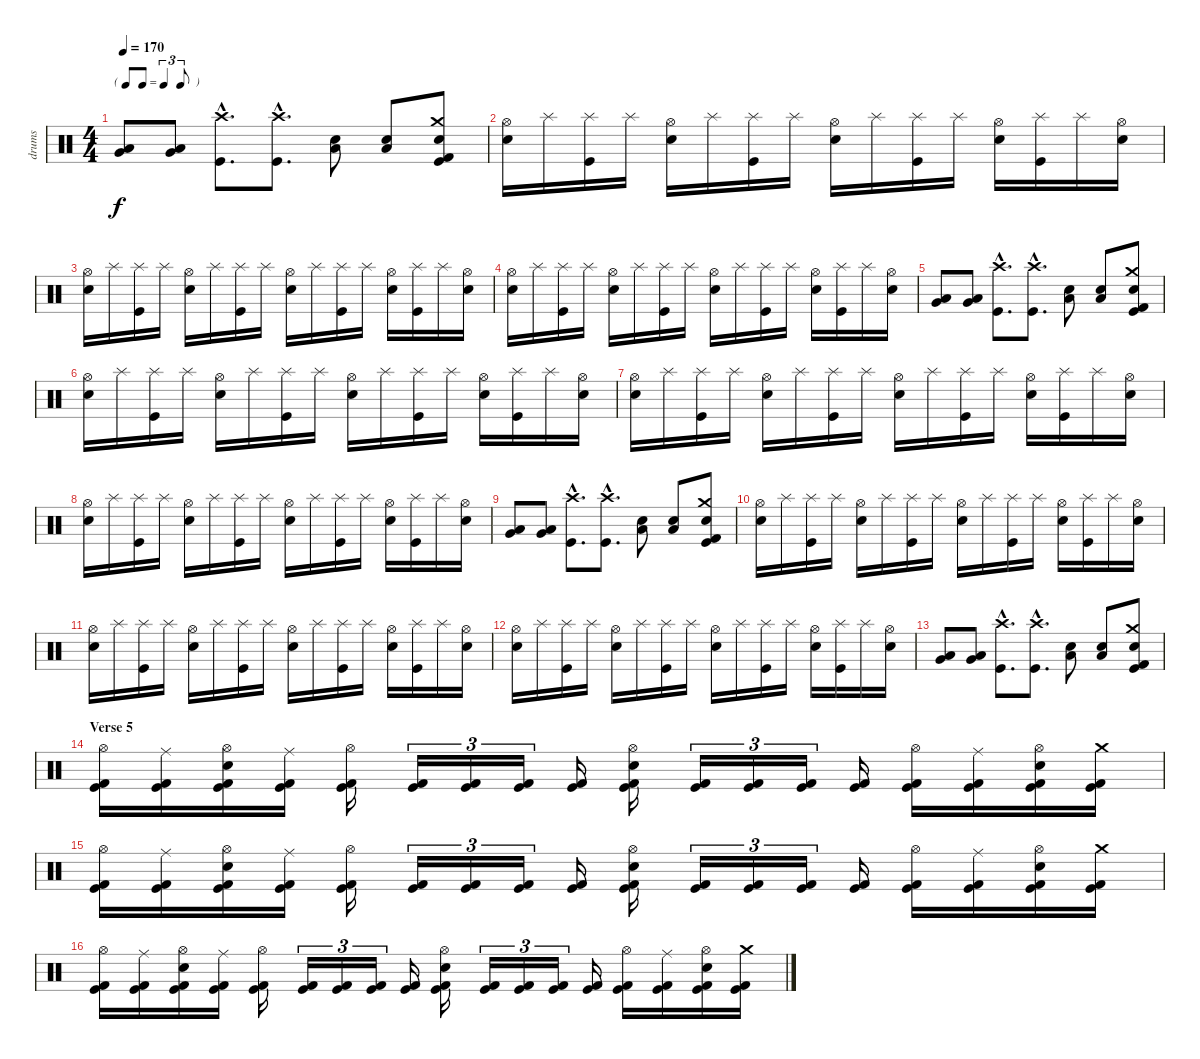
\track ("drums" "drums") {instrument percussion}
\staff {score}
\articulation defaults
\ts (4 4)
\tf triplet8th
\tempo 170
\clef neutral
\ks c
("Low Floor Tom (hit)" "Very Low Tom (hit)").8{dy f} ("Low Floor Tom (hit)" "Very Low Tom (hit)").8 ("Crash high (hit)"{hac} "Kick (hit)"{hac}).8{d} ("Crash high (hit)"{hac} "Kick (hit)"{hac}).8{d} ("Snare (hit) 2" "Low Floor Tom (hit)").8 ("Snare (hit) 2" "Low Floor Tom (hit)").8 ("Crash medium (hit)" "Electric Snare (hit)" "Kick (hit) 2" "Kick (hit)").8 |
("Hi-Hat (open)" "Snare (hit) 2").16 "Splash (hit)".16 ("Splash (hit)" "Kick (hit)").16 "Splash (hit)".16 ("Hi-Hat (open)" "Snare (hit) 2").16 "Splash (hit)".16 ("Splash (hit)" "Kick (hit)").16 "Splash (hit)".16 ("Hi-Hat (open)" "Snare (hit) 2").16 "Splash (hit)".16 ("Splash (hit)" "Kick (hit)").16 "Splash (hit)".16 ("Hi-Hat (open)" "Snare (hit) 2").16 ("Splash (hit)" "Kick (hit)").16 "Splash (hit)".16 ("Hi-Hat (open)" "Snare (hit) 2").16 |
("Hi-Hat (open)" "Snare (hit) 2").16 "Splash (hit)".16 ("Splash (hit)" "Kick (hit)").16 "Splash (hit)".16 ("Hi-Hat (open)" "Snare (hit) 2").16 "Splash (hit)".16 ("Splash (hit)" "Kick (hit)").16 "Splash (hit)".16 ("Hi-Hat (open)" "Snare (hit) 2").16 "Splash (hit)".16 ("Splash (hit)" "Kick (hit)").16 "Splash (hit)".16 ("Hi-Hat (open)" "Snare (hit) 2").16 ("Splash (hit)" "Kick (hit)").16 "Splash (hit)".16 ("Hi-Hat (open)" "Snare (hit) 2").16 |
("Hi-Hat (open)" "Snare (hit) 2").16 "Splash (hit)".16 ("Splash (hit)" "Kick (hit)").16 "Splash (hit)".16 ("Hi-Hat (open)" "Snare (hit) 2").16 "Splash (hit)".16 ("Splash (hit)" "Kick (hit)").16 "Splash (hit)".16 ("Hi-Hat (open)" "Snare (hit) 2").16 "Splash (hit)".16 ("Splash (hit)" "Kick (hit)").16 "Splash (hit)".16 ("Hi-Hat (open)" "Snare (hit) 2").16 ("Splash (hit)" "Kick (hit)").16 "Splash (hit)".16 ("Hi-Hat (open)" "Snare (hit) 2").16 |
("Low Floor Tom (hit)" "Very Low Tom (hit)").8 ("Low Floor Tom (hit)" "Very Low Tom (hit)").8 ("Crash high (hit)"{hac} "Kick (hit)"{hac}).8{d} ("Crash high (hit)"{hac} "Kick (hit)"{hac}).8{d} ("Snare (hit) 2" "Low Floor Tom (hit)").8 ("Snare (hit) 2" "Low Floor Tom (hit)").8 ("Crash medium (hit)" "Electric Snare (hit)" "Kick (hit) 2" "Kick (hit)").8 |
("Hi-Hat (open)" "Snare (hit) 2").16 "Splash (hit)".16 ("Splash (hit)" "Kick (hit)").16 "Splash (hit)".16 ("Hi-Hat (open)" "Snare (hit) 2").16 "Splash (hit)".16 ("Splash (hit)" "Kick (hit)").16 "Splash (hit)".16 ("Hi-Hat (open)" "Snare (hit) 2").16 "Splash (hit)".16 ("Splash (hit)" "Kick (hit)").16 "Splash (hit)".16 ("Hi-Hat (open)" "Snare (hit) 2").16 ("Splash (hit)" "Kick (hit)").16 "Splash (hit)".16 ("Hi-Hat (open)" "Snare (hit) 2").16 |
("Hi-Hat (open)" "Snare (hit) 2").16 "Splash (hit)".16 ("Splash (hit)" "Kick (hit)").16 "Splash (hit)".16 ("Hi-Hat (open)" "Snare (hit) 2").16 "Splash (hit)".16 ("Splash (hit)" "Kick (hit)").16 "Splash (hit)".16 ("Hi-Hat (open)" "Snare (hit) 2").16 "Splash (hit)".16 ("Splash (hit)" "Kick (hit)").16 "Splash (hit)".16 ("Hi-Hat (open)" "Snare (hit) 2").16 ("Splash (hit)" "Kick (hit)").16 "Splash (hit)".16 ("Hi-Hat (open)" "Snare (hit) 2").16 |
("Hi-Hat (open)" "Snare (hit) 2").16 "Splash (hit)".16 ("Splash (hit)" "Kick (hit)").16 "Splash (hit)".16 ("Hi-Hat (open)" "Snare (hit) 2").16 "Splash (hit)".16 ("Splash (hit)" "Kick (hit)").16 "Splash (hit)".16 ("Hi-Hat (open)" "Snare (hit) 2").16 "Splash (hit)".16 ("Splash (hit)" "Kick (hit)").16 "Splash (hit)".16 ("Hi-Hat (open)" "Snare (hit) 2").16 ("Splash (hit)" "Kick (hit)").16 "Splash (hit)".16 ("Hi-Hat (open)" "Snare (hit) 2").16 |
("Low Floor Tom (hit)" "Very Low Tom (hit)").8 ("Low Floor Tom (hit)" "Very Low Tom (hit)").8 ("Crash high (hit)"{hac} "Kick (hit)"{hac}).8{d} ("Crash high (hit)"{hac} "Kick (hit)"{hac}).8{d} ("Snare (hit) 2" "Low Floor Tom (hit)").8 ("Snare (hit) 2" "Low Floor Tom (hit)").8 ("Crash medium (hit)" "Electric Snare (hit)" "Kick (hit) 2" "Kick (hit)").8 |
("Hi-Hat (open)" "Snare (hit) 2").16 "Splash (hit)".16 ("Splash (hit)" "Kick (hit)").16 "Splash (hit)".16 ("Hi-Hat (open)" "Snare (hit) 2").16 "Splash (hit)".16 ("Splash (hit)" "Kick (hit)").16 "Splash (hit)".16 ("Hi-Hat (open)" "Snare (hit) 2").16 "Splash (hit)".16 ("Splash (hit)" "Kick (hit)").16 "Splash (hit)".16 ("Hi-Hat (open)" "Snare (hit) 2").16 ("Splash (hit)" "Kick (hit)").16 "Splash (hit)".16 ("Hi-Hat (open)" "Snare (hit) 2").16 |
("Hi-Hat (open)" "Snare (hit) 2").16 "Splash (hit)".16 ("Splash (hit)" "Kick (hit)").16 "Splash (hit)".16 ("Hi-Hat (open)" "Snare (hit) 2").16 "Splash (hit)".16 ("Splash (hit)" "Kick (hit)").16 "Splash (hit)".16 ("Hi-Hat (open)" "Snare (hit) 2").16 "Splash (hit)".16 ("Splash (hit)" "Kick (hit)").16 "Splash (hit)".16 ("Hi-Hat (open)" "Snare (hit) 2").16 ("Splash (hit)" "Kick (hit)").16 "Splash (hit)".16 ("Hi-Hat (open)" "Snare (hit) 2").16 |
("Hi-Hat (open)" "Snare (hit) 2").16 "Splash (hit)".16 ("Splash (hit)" "Kick (hit)").16 "Splash (hit)".16 ("Hi-Hat (open)" "Snare (hit) 2").16 "Splash (hit)".16 ("Splash (hit)" "Kick (hit)").16 "Splash (hit)".16 ("Hi-Hat (open)" "Snare (hit) 2").16 "Splash (hit)".16 ("Splash (hit)" "Kick (hit)").16 "Splash (hit)".16 ("Hi-Hat (open)" "Snare (hit) 2").16 ("Splash (hit)" "Kick (hit)").16 "Splash (hit)".16 ("Hi-Hat (open)" "Snare (hit) 2").16 |
("Low Floor Tom (hit)" "Very Low Tom (hit)").8 ("Low Floor Tom (hit)" "Very Low Tom (hit)").8 ("Crash high (hit)"{hac} "Kick (hit)"{hac}).8{d} ("Crash high (hit)"{hac} "Kick (hit)"{hac}).8{d} ("Snare (hit) 2" "Low Floor Tom (hit)").8 ("Snare (hit) 2" "Low Floor Tom (hit)").8 ("Crash medium (hit)" "Electric Snare (hit)" "Kick (hit) 2" "Kick (hit)").8 |
\section ("" "Verse 5")
("Hi-Hat (open)" "Kick (hit)" "Kick (hit) 2").16 ("Ride (middle)" "Kick (hit)" "Kick (hit) 2").16 ("Hi-Hat (open)" "Snare (hit) 2" "Kick (hit)" "Kick (hit) 2").16 ("Ride (middle)" "Kick (hit)" "Kick (hit) 2").16 ("Hi-Hat (open)" "Kick (hit)" "Kick (hit) 2").16 ("Kick (hit)" "Kick (hit) 2").16{tu (3 2)} ("Kick (hit)" "Kick (hit) 2").16{tu (3 2)} ("Kick (hit)" "Kick (hit) 2").16{tu (3 2)} ("Kick (hit)" "Kick (hit) 2").16 ("Hi-Hat (open)" "Snare (hit) 2" "Kick (hit)" "Kick (hit) 2").16 ("Kick (hit)" "Kick (hit) 2").16{tu (3 2)} ("Kick (hit)" "Kick (hit) 2").16{tu (3 2)} ("Kick (hit)" "Kick (hit) 2").16{tu (3 2)} ("Kick (hit)" "Kick (hit) 2").16 ("Hi-Hat (open)" "Kick (hit)" "Kick (hit) 2").16 ("Ride (middle)" "Kick (hit)" "Kick (hit) 2").16 ("Hi-Hat (open)" "Snare (hit) 2" "Kick (hit)" "Kick (hit) 2").16 ("Crash medium (hit)" "Kick (hit)" "Kick (hit) 2").16 |
("Hi-Hat (open)" "Kick (hit)" "Kick (hit) 2").16 ("Ride (middle)" "Kick (hit)" "Kick (hit) 2").16 ("Hi-Hat (open)" "Snare (hit) 2" "Kick (hit)" "Kick (hit) 2").16 ("Ride (middle)" "Kick (hit)" "Kick (hit) 2").16 ("Hi-Hat (open)" "Kick (hit)" "Kick (hit) 2").16 ("Kick (hit)" "Kick (hit) 2").16{tu (3 2)} ("Kick (hit)" "Kick (hit) 2").16{tu (3 2)} ("Kick (hit)" "Kick (hit) 2").16{tu (3 2)} ("Kick (hit)" "Kick (hit) 2").16 ("Hi-Hat (open)" "Snare (hit) 2" "Kick (hit)" "Kick (hit) 2").16 ("Kick (hit)" "Kick (hit) 2").16{tu (3 2)} ("Kick (hit)" "Kick (hit) 2").16{tu (3 2)} ("Kick (hit)" "Kick (hit) 2").16{tu (3 2)} ("Kick (hit)" "Kick (hit) 2").16 ("Hi-Hat (open)" "Kick (hit)" "Kick (hit) 2").16 ("Ride (middle)" "Kick (hit)" "Kick (hit) 2").16 ("Hi-Hat (open)" "Snare (hit) 2" "Kick (hit)" "Kick (hit) 2").16 ("Crash medium (hit)" "Kick (hit)" "Kick (hit) 2").16 |
("Hi-Hat (open)" "Kick (hit)" "Kick (hit) 2").16 ("Ride (middle)" "Kick (hit)" "Kick (hit) 2").16 ("Hi-Hat (open)" "Snare (hit) 2" "Kick (hit)" "Kick (hit) 2").16 ("Ride (middle)" "Kick (hit)" "Kick (hit) 2").16 ("Hi-Hat (open)" "Kick (hit)" "Kick (hit) 2").16 ("Kick (hit)" "Kick (hit) 2").16{tu (3 2)} ("Kick (hit)" "Kick (hit) 2").16{tu (3 2)} ("Kick (hit)" "Kick (hit) 2").16{tu (3 2)} ("Kick (hit)" "Kick (hit) 2").16 ("Hi-Hat (open)" "Snare (hit) 2" "Kick (hit)" "Kick (hit) 2").16 ("Kick (hit)" "Kick (hit) 2").16{tu (3 2)} ("Kick (hit)" "Kick (hit) 2").16{tu (3 2)} ("Kick (hit)" "Kick (hit) 2").16{tu (3 2)} ("Kick (hit)" "Kick (hit) 2").16 ("Hi-Hat (open)" "Kick (hit)" "Kick (hit) 2").16 ("Ride (middle)" "Kick (hit)" "Kick (hit) 2").16 ("Hi-Hat (open)" "Snare (hit) 2" "Kick (hit)" "Kick (hit) 2").16 ("Crash medium (hit)" "Kick (hit)" "Kick (hit) 2").16
